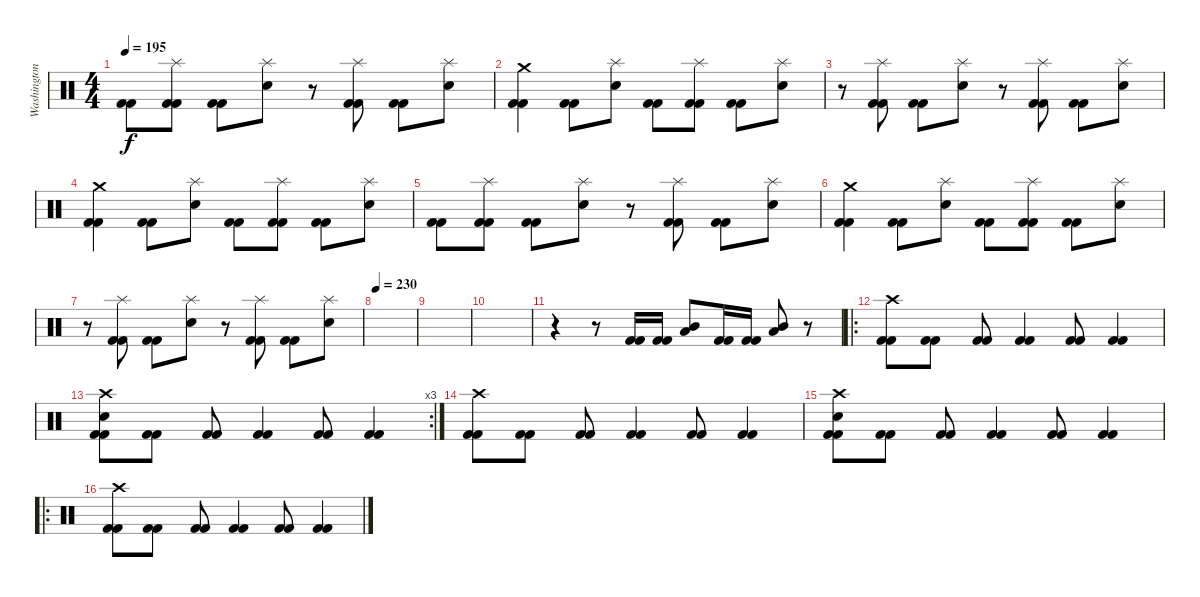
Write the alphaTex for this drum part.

\track ("Washington" "Washington") {solo instrument percussion}
\staff {score}
\articulation defaults
\ts (4 4)
\tempo 195
\clef neutral
\ks c
("Kick (hit) 2" "Kick (hit) 2").8{dy f} ("Splash (hit)" "Kick (hit) 2" "Kick (hit) 2").8 ("Kick (hit) 2" "Kick (hit) 2").8 ("Splash (hit)" "Electric Snare (hit)").8 r.8 ("Splash (hit)" "Kick (hit) 2" "Kick (hit) 2").8 ("Kick (hit) 2" "Kick (hit) 2").8 ("Splash (hit)" "Electric Snare (hit)").8 |
("Crash medium (hit)" "Kick (hit) 2" "Kick (hit) 2").4 ("Kick (hit) 2" "Kick (hit) 2").8 ("Splash (hit)" "Electric Snare (hit)").8 ("Kick (hit) 2" "Kick (hit) 2").8 ("Splash (hit)" "Kick (hit) 2" "Kick (hit) 2").8 ("Kick (hit) 2" "Kick (hit) 2").8 ("Splash (hit)" "Electric Snare (hit)").8 |
r.8 ("Splash (hit)" "Kick (hit) 2" "Kick (hit) 2").8 ("Kick (hit) 2" "Kick (hit) 2").8 ("Splash (hit)" "Electric Snare (hit)").8 r.8 ("Splash (hit)" "Kick (hit) 2" "Kick (hit) 2").8 ("Kick (hit) 2" "Kick (hit) 2").8 ("Splash (hit)" "Electric Snare (hit)").8 |
("Crash medium (hit)" "Kick (hit) 2" "Kick (hit) 2").4 ("Kick (hit) 2" "Kick (hit) 2").8 ("Splash (hit)" "Electric Snare (hit)").8 ("Kick (hit) 2" "Kick (hit) 2").8 ("Splash (hit)" "Kick (hit) 2" "Kick (hit) 2").8 ("Kick (hit) 2" "Kick (hit) 2").8 ("Splash (hit)" "Electric Snare (hit)").8 |
("Kick (hit) 2" "Kick (hit) 2").8 ("Splash (hit)" "Kick (hit) 2" "Kick (hit) 2").8 ("Kick (hit) 2" "Kick (hit) 2").8 ("Splash (hit)" "Electric Snare (hit)").8 r.8 ("Splash (hit)" "Kick (hit) 2" "Kick (hit) 2").8 ("Kick (hit) 2" "Kick (hit) 2").8 ("Splash (hit)" "Electric Snare (hit)").8 |
("Crash medium (hit)" "Kick (hit) 2" "Kick (hit) 2").4 ("Kick (hit) 2" "Kick (hit) 2").8 ("Splash (hit)" "Electric Snare (hit)").8 ("Kick (hit) 2" "Kick (hit) 2").8 ("Splash (hit)" "Kick (hit) 2" "Kick (hit) 2").8 ("Kick (hit) 2" "Kick (hit) 2").8 ("Splash (hit)" "Electric Snare (hit)").8 |
r.8 ("Splash (hit)" "Kick (hit) 2" "Kick (hit) 2").8 ("Kick (hit) 2" "Kick (hit) 2").8 ("Splash (hit)" "Electric Snare (hit)").8 r.8 ("Splash (hit)" "Kick (hit) 2" "Kick (hit) 2").8 ("Kick (hit) 2" "Kick (hit) 2").8 ("Splash (hit)" "Electric Snare (hit)").8 |
\tempo 230
|
|
|
r.4 r.8 ("Kick (hit) 2" "Kick (hit) 2").16 ("Kick (hit) 2" "Kick (hit) 2").16 ("Mid Tom (hit)" "Low Tom (hit)").8 ("Kick (hit) 2" "Kick (hit) 2").16 ("Kick (hit) 2" "Kick (hit) 2").16 ("Mid Tom (hit)" "Low Tom (hit)").8 r.8 |
\ro
("Crash high (hit)" "Kick (hit) 2" "Kick (hit) 2").8 ("Kick (hit) 2" "Kick (hit) 2").8 ("Kick (hit) 2" "Kick (hit) 2").8 ("Kick (hit) 2" "Kick (hit) 2").4 ("Kick (hit) 2" "Kick (hit) 2").8 ("Kick (hit) 2" "Kick (hit) 2").4 |
\rc 3
("Crash high (hit)" "Electric Snare (hit)" "Kick (hit) 2" "Kick (hit) 2").8 ("Kick (hit) 2" "Kick (hit) 2").8 ("Kick (hit) 2" "Kick (hit) 2").8 ("Kick (hit) 2" "Kick (hit) 2").4 ("Kick (hit) 2" "Kick (hit) 2").8 ("Kick (hit) 2" "Kick (hit) 2").4 |
("Crash high (hit)" "Kick (hit) 2" "Kick (hit) 2").8 ("Kick (hit) 2" "Kick (hit) 2").8 ("Kick (hit) 2" "Kick (hit) 2").8 ("Kick (hit) 2" "Kick (hit) 2").4 ("Kick (hit) 2" "Kick (hit) 2").8 ("Kick (hit) 2" "Kick (hit) 2").4 |
("Crash high (hit)" "Electric Snare (hit)" "Kick (hit) 2" "Kick (hit) 2").8 ("Kick (hit) 2" "Kick (hit) 2").8 ("Kick (hit) 2" "Kick (hit) 2").8 ("Kick (hit) 2" "Kick (hit) 2").4 ("Kick (hit) 2" "Kick (hit) 2").8 ("Kick (hit) 2" "Kick (hit) 2").4 |
\ro
("Crash high (hit)" "Kick (hit) 2" "Kick (hit) 2").8 ("Kick (hit) 2" "Kick (hit) 2").8 ("Kick (hit) 2" "Kick (hit) 2").8 ("Kick (hit) 2" "Kick (hit) 2").4 ("Kick (hit) 2" "Kick (hit) 2").8 ("Kick (hit) 2" "Kick (hit) 2").4
